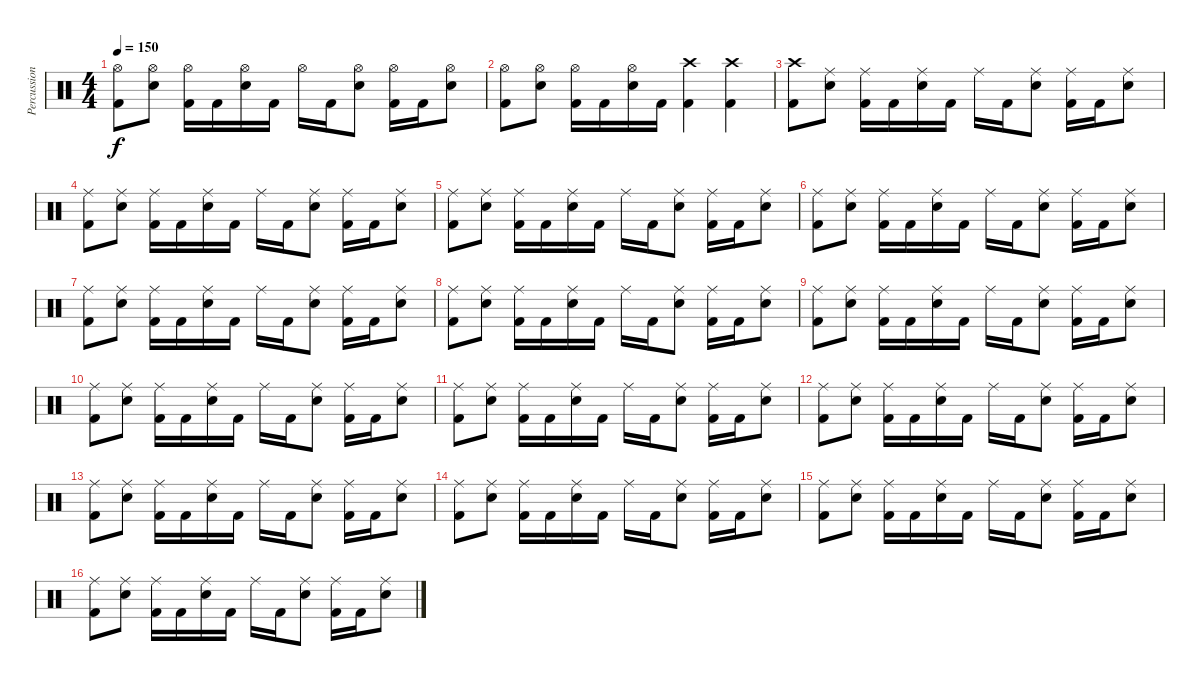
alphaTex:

\track ("Percussions" "Percussion") {instrument percussion}
\staff {score}
\articulation defaults
\ts (4 4)
\tempo 150
\clef neutral
\ks c
("Hi-Hat (open)" "Kick (hit) 2").8{dy f} ("Hi-Hat (open)" "Snare (hit) 2").8 ("Hi-Hat (open)" "Kick (hit) 2").16 "Kick (hit) 2".16 ("Hi-Hat (open)" "Snare (hit) 2").16 "Kick (hit) 2".16 "Hi-Hat (open)".16 "Kick (hit) 2".16 ("Hi-Hat (open)" "Snare (hit) 2").8 ("Hi-Hat (open)" "Kick (hit) 2").16 "Kick (hit) 2".16 ("Hi-Hat (open)" "Snare (hit) 2").8 |
("Hi-Hat (open)" "Kick (hit) 2").8 ("Hi-Hat (open)" "Snare (hit) 2").8 ("Hi-Hat (open)" "Kick (hit) 2").16 "Kick (hit) 2".16 ("Hi-Hat (open)" "Snare (hit) 2").16 "Kick (hit) 2".16 ("Crash high (hit)" "Kick (hit) 2").4 ("Crash high (hit)" "Kick (hit) 2").4 |
("Crash high (hit)" "Kick (hit) 2").8 ("Ride (middle)" "Snare (hit) 2").8 ("Ride (middle)" "Kick (hit) 2").16 "Kick (hit) 2".16 ("Ride (middle)" "Snare (hit) 2").16 "Kick (hit) 2".16 "Ride (middle)".16 "Kick (hit) 2".16 ("Ride (middle)" "Snare (hit) 2").8 ("Ride (middle)" "Kick (hit) 2").16 "Kick (hit) 2".16 ("Ride (middle)" "Snare (hit) 2").8 |
("Ride (middle)" "Kick (hit) 2").8 ("Ride (middle)" "Snare (hit) 2").8 ("Ride (middle)" "Kick (hit) 2").16 "Kick (hit) 2".16 ("Ride (middle)" "Snare (hit) 2").16 "Kick (hit) 2".16 "Ride (middle)".16 "Kick (hit) 2".16 ("Ride (middle)" "Snare (hit) 2").8 ("Ride (middle)" "Kick (hit) 2").16 "Kick (hit) 2".16 ("Ride (middle)" "Snare (hit) 2").8 |
("Ride (middle)" "Kick (hit) 2").8 ("Ride (middle)" "Snare (hit) 2").8 ("Ride (middle)" "Kick (hit) 2").16 "Kick (hit) 2".16 ("Ride (middle)" "Snare (hit) 2").16 "Kick (hit) 2".16 "Ride (middle)".16 "Kick (hit) 2".16 ("Ride (middle)" "Snare (hit) 2").8 ("Ride (middle)" "Kick (hit) 2").16 "Kick (hit) 2".16 ("Ride (middle)" "Snare (hit) 2").8 |
("Ride (middle)" "Kick (hit) 2").8 ("Ride (middle)" "Snare (hit) 2").8 ("Ride (middle)" "Kick (hit) 2").16 "Kick (hit) 2".16 ("Ride (middle)" "Snare (hit) 2").16 "Kick (hit) 2".16 "Ride (middle)".16 "Kick (hit) 2".16 ("Ride (middle)" "Snare (hit) 2").8 ("Ride (middle)" "Kick (hit) 2").16 "Kick (hit) 2".16 ("Ride (middle)" "Snare (hit) 2").8 |
("Ride (middle)" "Kick (hit) 2").8 ("Ride (middle)" "Snare (hit) 2").8 ("Ride (middle)" "Kick (hit) 2").16 "Kick (hit) 2".16 ("Ride (middle)" "Snare (hit) 2").16 "Kick (hit) 2".16 "Ride (middle)".16 "Kick (hit) 2".16 ("Ride (middle)" "Snare (hit) 2").8 ("Ride (middle)" "Kick (hit) 2").16 "Kick (hit) 2".16 ("Ride (middle)" "Snare (hit) 2").8 |
("Ride (middle)" "Kick (hit) 2").8 ("Ride (middle)" "Snare (hit) 2").8 ("Ride (middle)" "Kick (hit) 2").16 "Kick (hit) 2".16 ("Ride (middle)" "Snare (hit) 2").16 "Kick (hit) 2".16 "Ride (middle)".16 "Kick (hit) 2".16 ("Ride (middle)" "Snare (hit) 2").8 ("Ride (middle)" "Kick (hit) 2").16 "Kick (hit) 2".16 ("Ride (middle)" "Snare (hit) 2").8 |
("Ride (middle)" "Kick (hit) 2").8 ("Ride (middle)" "Snare (hit) 2").8 ("Ride (middle)" "Kick (hit) 2").16 "Kick (hit) 2".16 ("Ride (middle)" "Snare (hit) 2").16 "Kick (hit) 2".16 "Ride (middle)".16 "Kick (hit) 2".16 ("Ride (middle)" "Snare (hit) 2").8 ("Ride (middle)" "Kick (hit) 2").16 "Kick (hit) 2".16 ("Ride (middle)" "Snare (hit) 2").8 |
("Ride (middle)" "Kick (hit) 2").8 ("Ride (middle)" "Snare (hit) 2").8 ("Ride (middle)" "Kick (hit) 2").16 "Kick (hit) 2".16 ("Ride (middle)" "Snare (hit) 2").16 "Kick (hit) 2".16 "Ride (middle)".16 "Kick (hit) 2".16 ("Ride (middle)" "Snare (hit) 2").8 ("Ride (middle)" "Kick (hit) 2").16 "Kick (hit) 2".16 ("Ride (middle)" "Snare (hit) 2").8 |
("Ride (middle)" "Kick (hit) 2").8 ("Ride (middle)" "Snare (hit) 2").8 ("Ride (middle)" "Kick (hit) 2").16 "Kick (hit) 2".16 ("Ride (middle)" "Snare (hit) 2").16 "Kick (hit) 2".16 "Ride (middle)".16 "Kick (hit) 2".16 ("Ride (middle)" "Snare (hit) 2").8 ("Ride (middle)" "Kick (hit) 2").16 "Kick (hit) 2".16 ("Ride (middle)" "Snare (hit) 2").8 |
("Ride (middle)" "Kick (hit) 2").8 ("Ride (middle)" "Snare (hit) 2").8 ("Ride (middle)" "Kick (hit) 2").16 "Kick (hit) 2".16 ("Ride (middle)" "Snare (hit) 2").16 "Kick (hit) 2".16 "Ride (middle)".16 "Kick (hit) 2".16 ("Ride (middle)" "Snare (hit) 2").8 ("Ride (middle)" "Kick (hit) 2").16 "Kick (hit) 2".16 ("Ride (middle)" "Snare (hit) 2").8 |
("Ride (middle)" "Kick (hit) 2").8 ("Ride (middle)" "Snare (hit) 2").8 ("Ride (middle)" "Kick (hit) 2").16 "Kick (hit) 2".16 ("Ride (middle)" "Snare (hit) 2").16 "Kick (hit) 2".16 "Ride (middle)".16 "Kick (hit) 2".16 ("Ride (middle)" "Snare (hit) 2").8 ("Ride (middle)" "Kick (hit) 2").16 "Kick (hit) 2".16 ("Ride (middle)" "Snare (hit) 2").8 |
("Ride (middle)" "Kick (hit) 2").8 ("Ride (middle)" "Snare (hit) 2").8 ("Ride (middle)" "Kick (hit) 2").16 "Kick (hit) 2".16 ("Ride (middle)" "Snare (hit) 2").16 "Kick (hit) 2".16 "Ride (middle)".16 "Kick (hit) 2".16 ("Ride (middle)" "Snare (hit) 2").8 ("Ride (middle)" "Kick (hit) 2").16 "Kick (hit) 2".16 ("Ride (middle)" "Snare (hit) 2").8 |
("Ride (middle)" "Kick (hit) 2").8 ("Ride (middle)" "Snare (hit) 2").8 ("Ride (middle)" "Kick (hit) 2").16 "Kick (hit) 2".16 ("Ride (middle)" "Snare (hit) 2").16 "Kick (hit) 2".16 "Ride (middle)".16 "Kick (hit) 2".16 ("Ride (middle)" "Snare (hit) 2").8 ("Ride (middle)" "Kick (hit) 2").16 "Kick (hit) 2".16 ("Ride (middle)" "Snare (hit) 2").8 |
("Ride (middle)" "Kick (hit) 2").8 ("Ride (middle)" "Snare (hit) 2").8 ("Ride (middle)" "Kick (hit) 2").16 "Kick (hit) 2".16 ("Ride (middle)" "Snare (hit) 2").16 "Kick (hit) 2".16 "Ride (middle)".16 "Kick (hit) 2".16 ("Ride (middle)" "Snare (hit) 2").8 ("Ride (middle)" "Kick (hit) 2").16 "Kick (hit) 2".16 ("Ride (middle)" "Snare (hit) 2").8
